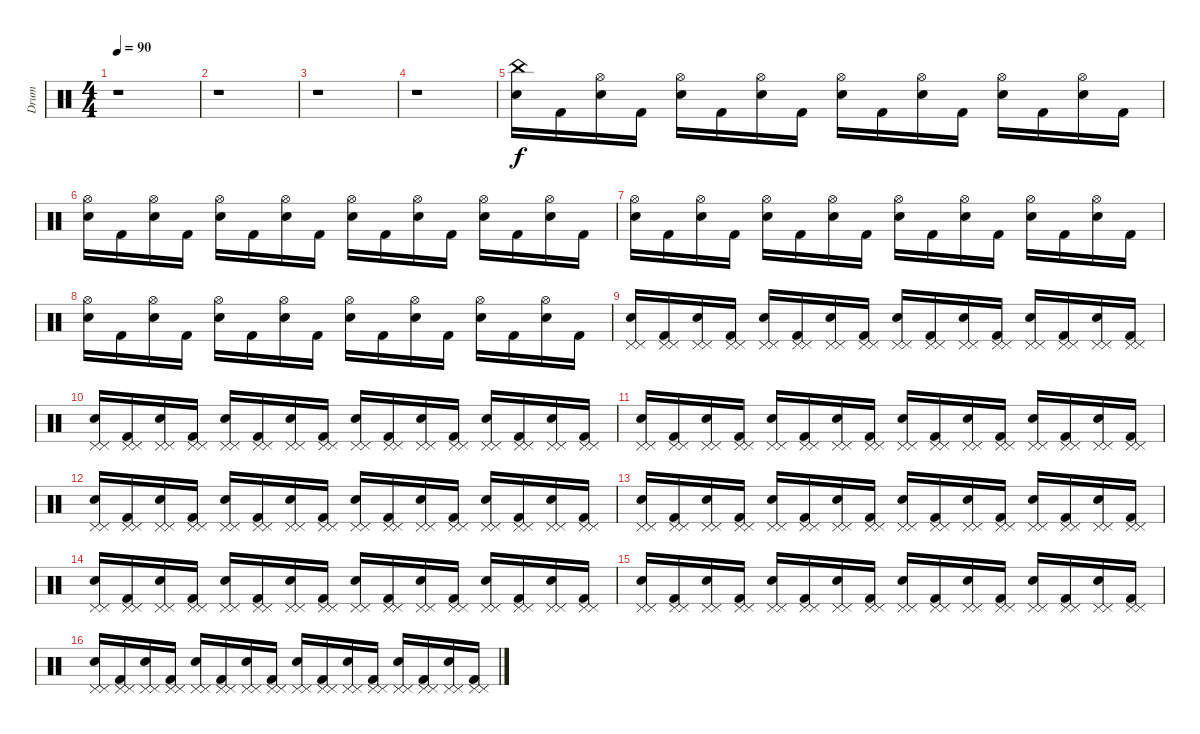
\track ("Drum" "Drum") {instrument percussion}
\staff {score}
\articulation defaults
\ts (4 4)
\tempo 90
\clef neutral
\ks c
r.1{dy f} |
r.1 |
r.1 |
r.1 |
("China (hit)" "Electric Snare (hit)").16 "Kick (hit) 2".16 ("Hi-Hat (open)" "Electric Snare (hit)").16 "Kick (hit) 2".16 ("Hi-Hat (open)" "Electric Snare (hit)").16 "Kick (hit) 2".16 ("Hi-Hat (open)" "Electric Snare (hit)").16 "Kick (hit) 2".16 ("Hi-Hat (open)" "Electric Snare (hit)").16 "Kick (hit) 2".16 ("Hi-Hat (open)" "Electric Snare (hit)").16 "Kick (hit) 2".16 ("Hi-Hat (open)" "Electric Snare (hit)").16 "Kick (hit) 2".16 ("Hi-Hat (open)" "Electric Snare (hit)").16 "Kick (hit) 2".16 |
("Hi-Hat (open)" "Electric Snare (hit)").16 "Kick (hit) 2".16 ("Hi-Hat (open)" "Electric Snare (hit)").16 "Kick (hit) 2".16 ("Hi-Hat (open)" "Electric Snare (hit)").16 "Kick (hit) 2".16 ("Hi-Hat (open)" "Electric Snare (hit)").16 "Kick (hit) 2".16 ("Hi-Hat (open)" "Electric Snare (hit)").16 "Kick (hit) 2".16 ("Hi-Hat (open)" "Electric Snare (hit)").16 "Kick (hit) 2".16 ("Hi-Hat (open)" "Electric Snare (hit)").16 "Kick (hit) 2".16 ("Hi-Hat (open)" "Electric Snare (hit)").16 "Kick (hit) 2".16 |
("Hi-Hat (open)" "Electric Snare (hit)").16 "Kick (hit) 2".16 ("Hi-Hat (open)" "Electric Snare (hit)").16 "Kick (hit) 2".16 ("Hi-Hat (open)" "Electric Snare (hit)").16 "Kick (hit) 2".16 ("Hi-Hat (open)" "Electric Snare (hit)").16 "Kick (hit) 2".16 ("Hi-Hat (open)" "Electric Snare (hit)").16 "Kick (hit) 2".16 ("Hi-Hat (open)" "Electric Snare (hit)").16 "Kick (hit) 2".16 ("Hi-Hat (open)" "Electric Snare (hit)").16 "Kick (hit) 2".16 ("Hi-Hat (open)" "Electric Snare (hit)").16 "Kick (hit) 2".16 |
("Hi-Hat (open)" "Electric Snare (hit)").16 "Kick (hit) 2".16 ("Hi-Hat (open)" "Electric Snare (hit)").16 "Kick (hit) 2".16 ("Hi-Hat (open)" "Electric Snare (hit)").16 "Kick (hit) 2".16 ("Hi-Hat (open)" "Electric Snare (hit)").16 "Kick (hit) 2".16 ("Hi-Hat (open)" "Electric Snare (hit)").16 "Kick (hit) 2".16 ("Hi-Hat (open)" "Electric Snare (hit)").16 "Kick (hit) 2".16 ("Hi-Hat (open)" "Electric Snare (hit)").16 "Kick (hit) 2".16 ("Hi-Hat (open)" "Electric Snare (hit)").16 "Kick (hit) 2".16 |
("Pedal Hi-Hat (hit)" "Electric Snare (hit)" "Pedal Hi-Hat (hit)").16 ("Pedal Hi-Hat (hit)" "Kick (hit) 2" "Pedal Hi-Hat (hit)").16 ("Pedal Hi-Hat (hit)" "Electric Snare (hit)" "Pedal Hi-Hat (hit)").16 ("Pedal Hi-Hat (hit)" "Kick (hit) 2" "Pedal Hi-Hat (hit)").16 ("Pedal Hi-Hat (hit)" "Electric Snare (hit)" "Pedal Hi-Hat (hit)").16 ("Pedal Hi-Hat (hit)" "Kick (hit) 2" "Pedal Hi-Hat (hit)").16 ("Pedal Hi-Hat (hit)" "Electric Snare (hit)" "Pedal Hi-Hat (hit)").16 ("Pedal Hi-Hat (hit)" "Kick (hit) 2" "Pedal Hi-Hat (hit)").16 ("Pedal Hi-Hat (hit)" "Electric Snare (hit)" "Pedal Hi-Hat (hit)").16 ("Pedal Hi-Hat (hit)" "Kick (hit) 2" "Pedal Hi-Hat (hit)").16 ("Pedal Hi-Hat (hit)" "Electric Snare (hit)" "Pedal Hi-Hat (hit)").16 ("Pedal Hi-Hat (hit)" "Kick (hit) 2" "Pedal Hi-Hat (hit)").16 ("Pedal Hi-Hat (hit)" "Electric Snare (hit)" "Pedal Hi-Hat (hit)").16 ("Pedal Hi-Hat (hit)" "Kick (hit) 2" "Pedal Hi-Hat (hit)").16 ("Pedal Hi-Hat (hit)" "Electric Snare (hit)" "Pedal Hi-Hat (hit)").16 ("Pedal Hi-Hat (hit)" "Kick (hit) 2" "Pedal Hi-Hat (hit)").16 |
("Pedal Hi-Hat (hit)" "Electric Snare (hit)" "Pedal Hi-Hat (hit)").16 ("Pedal Hi-Hat (hit)" "Kick (hit) 2" "Pedal Hi-Hat (hit)").16 ("Pedal Hi-Hat (hit)" "Electric Snare (hit)" "Pedal Hi-Hat (hit)").16 ("Pedal Hi-Hat (hit)" "Kick (hit) 2" "Pedal Hi-Hat (hit)").16 ("Pedal Hi-Hat (hit)" "Electric Snare (hit)" "Pedal Hi-Hat (hit)").16 ("Pedal Hi-Hat (hit)" "Kick (hit) 2" "Pedal Hi-Hat (hit)").16 ("Pedal Hi-Hat (hit)" "Electric Snare (hit)" "Pedal Hi-Hat (hit)").16 ("Pedal Hi-Hat (hit)" "Kick (hit) 2" "Pedal Hi-Hat (hit)").16 ("Pedal Hi-Hat (hit)" "Electric Snare (hit)" "Pedal Hi-Hat (hit)").16 ("Pedal Hi-Hat (hit)" "Kick (hit) 2" "Pedal Hi-Hat (hit)").16 ("Pedal Hi-Hat (hit)" "Electric Snare (hit)" "Pedal Hi-Hat (hit)").16 ("Pedal Hi-Hat (hit)" "Kick (hit) 2" "Pedal Hi-Hat (hit)").16 ("Pedal Hi-Hat (hit)" "Electric Snare (hit)" "Pedal Hi-Hat (hit)").16 ("Pedal Hi-Hat (hit)" "Kick (hit) 2" "Pedal Hi-Hat (hit)").16 ("Pedal Hi-Hat (hit)" "Electric Snare (hit)" "Pedal Hi-Hat (hit)").16 ("Pedal Hi-Hat (hit)" "Kick (hit) 2" "Pedal Hi-Hat (hit)").16 |
("Pedal Hi-Hat (hit)" "Electric Snare (hit)" "Pedal Hi-Hat (hit)").16 ("Pedal Hi-Hat (hit)" "Kick (hit) 2" "Pedal Hi-Hat (hit)").16 ("Pedal Hi-Hat (hit)" "Electric Snare (hit)" "Pedal Hi-Hat (hit)").16 ("Pedal Hi-Hat (hit)" "Kick (hit) 2" "Pedal Hi-Hat (hit)").16 ("Pedal Hi-Hat (hit)" "Electric Snare (hit)" "Pedal Hi-Hat (hit)").16 ("Pedal Hi-Hat (hit)" "Kick (hit) 2" "Pedal Hi-Hat (hit)").16 ("Pedal Hi-Hat (hit)" "Electric Snare (hit)" "Pedal Hi-Hat (hit)").16 ("Pedal Hi-Hat (hit)" "Kick (hit) 2" "Pedal Hi-Hat (hit)").16 ("Pedal Hi-Hat (hit)" "Electric Snare (hit)" "Pedal Hi-Hat (hit)").16 ("Pedal Hi-Hat (hit)" "Kick (hit) 2" "Pedal Hi-Hat (hit)").16 ("Pedal Hi-Hat (hit)" "Electric Snare (hit)" "Pedal Hi-Hat (hit)").16 ("Pedal Hi-Hat (hit)" "Kick (hit) 2" "Pedal Hi-Hat (hit)").16 ("Pedal Hi-Hat (hit)" "Electric Snare (hit)" "Pedal Hi-Hat (hit)").16 ("Pedal Hi-Hat (hit)" "Kick (hit) 2" "Pedal Hi-Hat (hit)").16 ("Pedal Hi-Hat (hit)" "Electric Snare (hit)" "Pedal Hi-Hat (hit)").16 ("Pedal Hi-Hat (hit)" "Kick (hit) 2" "Pedal Hi-Hat (hit)").16 |
("Pedal Hi-Hat (hit)" "Electric Snare (hit)" "Pedal Hi-Hat (hit)").16 ("Pedal Hi-Hat (hit)" "Kick (hit) 2" "Pedal Hi-Hat (hit)").16 ("Pedal Hi-Hat (hit)" "Electric Snare (hit)" "Pedal Hi-Hat (hit)").16 ("Pedal Hi-Hat (hit)" "Kick (hit) 2" "Pedal Hi-Hat (hit)").16 ("Pedal Hi-Hat (hit)" "Electric Snare (hit)" "Pedal Hi-Hat (hit)").16 ("Pedal Hi-Hat (hit)" "Kick (hit) 2" "Pedal Hi-Hat (hit)").16 ("Pedal Hi-Hat (hit)" "Electric Snare (hit)" "Pedal Hi-Hat (hit)").16 ("Pedal Hi-Hat (hit)" "Kick (hit) 2" "Pedal Hi-Hat (hit)").16 ("Pedal Hi-Hat (hit)" "Electric Snare (hit)" "Pedal Hi-Hat (hit)").16 ("Pedal Hi-Hat (hit)" "Kick (hit) 2" "Pedal Hi-Hat (hit)").16 ("Pedal Hi-Hat (hit)" "Electric Snare (hit)" "Pedal Hi-Hat (hit)").16 ("Pedal Hi-Hat (hit)" "Kick (hit) 2" "Pedal Hi-Hat (hit)").16 ("Pedal Hi-Hat (hit)" "Electric Snare (hit)" "Pedal Hi-Hat (hit)").16 ("Pedal Hi-Hat (hit)" "Kick (hit) 2" "Pedal Hi-Hat (hit)").16 ("Pedal Hi-Hat (hit)" "Electric Snare (hit)" "Pedal Hi-Hat (hit)").16 ("Pedal Hi-Hat (hit)" "Kick (hit) 2" "Pedal Hi-Hat (hit)").16 |
("Pedal Hi-Hat (hit)" "Electric Snare (hit)" "Pedal Hi-Hat (hit)").16 ("Pedal Hi-Hat (hit)" "Kick (hit) 2" "Pedal Hi-Hat (hit)").16 ("Pedal Hi-Hat (hit)" "Electric Snare (hit)" "Pedal Hi-Hat (hit)").16 ("Pedal Hi-Hat (hit)" "Kick (hit) 2" "Pedal Hi-Hat (hit)").16 ("Pedal Hi-Hat (hit)" "Electric Snare (hit)" "Pedal Hi-Hat (hit)").16 ("Pedal Hi-Hat (hit)" "Kick (hit) 2" "Pedal Hi-Hat (hit)").16 ("Pedal Hi-Hat (hit)" "Electric Snare (hit)" "Pedal Hi-Hat (hit)").16 ("Pedal Hi-Hat (hit)" "Kick (hit) 2" "Pedal Hi-Hat (hit)").16 ("Pedal Hi-Hat (hit)" "Electric Snare (hit)" "Pedal Hi-Hat (hit)").16 ("Pedal Hi-Hat (hit)" "Kick (hit) 2" "Pedal Hi-Hat (hit)").16 ("Pedal Hi-Hat (hit)" "Electric Snare (hit)" "Pedal Hi-Hat (hit)").16 ("Pedal Hi-Hat (hit)" "Kick (hit) 2" "Pedal Hi-Hat (hit)").16 ("Pedal Hi-Hat (hit)" "Electric Snare (hit)" "Pedal Hi-Hat (hit)").16 ("Pedal Hi-Hat (hit)" "Kick (hit) 2" "Pedal Hi-Hat (hit)").16 ("Pedal Hi-Hat (hit)" "Electric Snare (hit)" "Pedal Hi-Hat (hit)").16 ("Pedal Hi-Hat (hit)" "Kick (hit) 2" "Pedal Hi-Hat (hit)").16 |
("Pedal Hi-Hat (hit)" "Electric Snare (hit)" "Pedal Hi-Hat (hit)").16 ("Pedal Hi-Hat (hit)" "Kick (hit) 2" "Pedal Hi-Hat (hit)").16 ("Pedal Hi-Hat (hit)" "Electric Snare (hit)" "Pedal Hi-Hat (hit)").16 ("Pedal Hi-Hat (hit)" "Kick (hit) 2" "Pedal Hi-Hat (hit)").16 ("Pedal Hi-Hat (hit)" "Electric Snare (hit)" "Pedal Hi-Hat (hit)").16 ("Pedal Hi-Hat (hit)" "Kick (hit) 2" "Pedal Hi-Hat (hit)").16 ("Pedal Hi-Hat (hit)" "Electric Snare (hit)" "Pedal Hi-Hat (hit)").16 ("Pedal Hi-Hat (hit)" "Kick (hit) 2" "Pedal Hi-Hat (hit)").16 ("Pedal Hi-Hat (hit)" "Electric Snare (hit)" "Pedal Hi-Hat (hit)").16 ("Pedal Hi-Hat (hit)" "Kick (hit) 2" "Pedal Hi-Hat (hit)").16 ("Pedal Hi-Hat (hit)" "Electric Snare (hit)" "Pedal Hi-Hat (hit)").16 ("Pedal Hi-Hat (hit)" "Kick (hit) 2" "Pedal Hi-Hat (hit)").16 ("Pedal Hi-Hat (hit)" "Electric Snare (hit)" "Pedal Hi-Hat (hit)").16 ("Pedal Hi-Hat (hit)" "Kick (hit) 2" "Pedal Hi-Hat (hit)").16 ("Pedal Hi-Hat (hit)" "Electric Snare (hit)" "Pedal Hi-Hat (hit)").16 ("Pedal Hi-Hat (hit)" "Kick (hit) 2" "Pedal Hi-Hat (hit)").16 |
("Pedal Hi-Hat (hit)" "Electric Snare (hit)" "Pedal Hi-Hat (hit)").16 ("Pedal Hi-Hat (hit)" "Kick (hit) 2" "Pedal Hi-Hat (hit)").16 ("Pedal Hi-Hat (hit)" "Electric Snare (hit)" "Pedal Hi-Hat (hit)").16 ("Pedal Hi-Hat (hit)" "Kick (hit) 2" "Pedal Hi-Hat (hit)").16 ("Pedal Hi-Hat (hit)" "Electric Snare (hit)" "Pedal Hi-Hat (hit)").16 ("Pedal Hi-Hat (hit)" "Kick (hit) 2" "Pedal Hi-Hat (hit)").16 ("Pedal Hi-Hat (hit)" "Electric Snare (hit)" "Pedal Hi-Hat (hit)").16 ("Pedal Hi-Hat (hit)" "Kick (hit) 2" "Pedal Hi-Hat (hit)").16 ("Pedal Hi-Hat (hit)" "Electric Snare (hit)" "Pedal Hi-Hat (hit)").16 ("Pedal Hi-Hat (hit)" "Kick (hit) 2" "Pedal Hi-Hat (hit)").16 ("Pedal Hi-Hat (hit)" "Electric Snare (hit)" "Pedal Hi-Hat (hit)").16 ("Pedal Hi-Hat (hit)" "Kick (hit) 2" "Pedal Hi-Hat (hit)").16 ("Pedal Hi-Hat (hit)" "Electric Snare (hit)" "Pedal Hi-Hat (hit)").16 ("Pedal Hi-Hat (hit)" "Kick (hit) 2" "Pedal Hi-Hat (hit)").16 ("Pedal Hi-Hat (hit)" "Electric Snare (hit)" "Pedal Hi-Hat (hit)").16 ("Pedal Hi-Hat (hit)" "Kick (hit) 2" "Pedal Hi-Hat (hit)").16 |
("Pedal Hi-Hat (hit)" "Electric Snare (hit)" "Pedal Hi-Hat (hit)").16 ("Pedal Hi-Hat (hit)" "Kick (hit) 2" "Pedal Hi-Hat (hit)").16 ("Pedal Hi-Hat (hit)" "Electric Snare (hit)" "Pedal Hi-Hat (hit)").16 ("Pedal Hi-Hat (hit)" "Kick (hit) 2" "Pedal Hi-Hat (hit)").16 ("Pedal Hi-Hat (hit)" "Electric Snare (hit)" "Pedal Hi-Hat (hit)").16 ("Pedal Hi-Hat (hit)" "Kick (hit) 2" "Pedal Hi-Hat (hit)").16 ("Pedal Hi-Hat (hit)" "Electric Snare (hit)" "Pedal Hi-Hat (hit)").16 ("Pedal Hi-Hat (hit)" "Kick (hit) 2" "Pedal Hi-Hat (hit)").16 ("Pedal Hi-Hat (hit)" "Electric Snare (hit)" "Pedal Hi-Hat (hit)").16 ("Pedal Hi-Hat (hit)" "Kick (hit) 2" "Pedal Hi-Hat (hit)").16 ("Pedal Hi-Hat (hit)" "Electric Snare (hit)" "Pedal Hi-Hat (hit)").16 ("Pedal Hi-Hat (hit)" "Kick (hit) 2" "Pedal Hi-Hat (hit)").16 ("Pedal Hi-Hat (hit)" "Electric Snare (hit)" "Pedal Hi-Hat (hit)").16 ("Pedal Hi-Hat (hit)" "Kick (hit) 2" "Pedal Hi-Hat (hit)").16 ("Pedal Hi-Hat (hit)" "Electric Snare (hit)" "Pedal Hi-Hat (hit)").16 ("Pedal Hi-Hat (hit)" "Kick (hit) 2" "Pedal Hi-Hat (hit)").16
